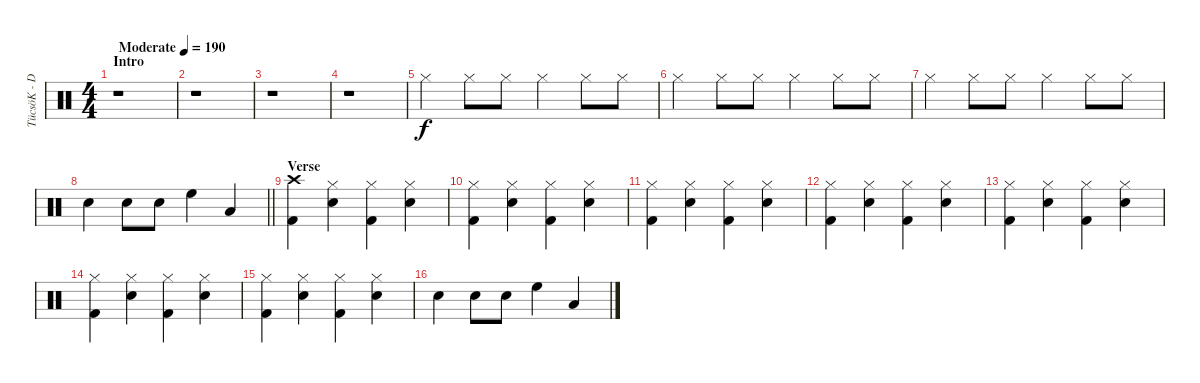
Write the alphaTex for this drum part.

\track ("TücsöK - Dob" "TücsöK - D") {instrument percussion}
\staff {score}
\articulation defaults
\ts (4 4)
\section ("" "Intro")
\tempo (190 "Moderate")
\clef neutral
\ks c
r.1{dy f} |
r.1 |
r.1 |
r.1 |
"Hi-Hat (closed)".4 "Hi-Hat (closed)".8 "Hi-Hat (closed)".8 "Hi-Hat (closed)".4 "Hi-Hat (closed)".8 "Hi-Hat (closed)".8 |
"Hi-Hat (closed)".4 "Hi-Hat (closed)".8 "Hi-Hat (closed)".8 "Hi-Hat (closed)".4 "Hi-Hat (closed)".8 "Hi-Hat (closed)".8 |
"Hi-Hat (closed)".4 "Hi-Hat (closed)".8 "Hi-Hat (closed)".8 "Hi-Hat (closed)".4 "Hi-Hat (closed)".8 "Hi-Hat (closed)".8 |
\barLineRight lightlight "Snare (hit) 2".4 "Snare (hit) 2".8 "Snare (hit) 2".8 "High Floor Tom (hit)".4 "Low Tom (hit)".4
|
\section ("" "Verse")
("Crash high (hit)" "Kick (hit) 2").4 ("Hi-Hat (closed)" "Snare (hit) 2").4 ("Hi-Hat (closed)" "Kick (hit) 2").4 ("Hi-Hat (closed)" "Snare (hit) 2").4 |
("Hi-Hat (closed)" "Kick (hit) 2").4 ("Hi-Hat (closed)" "Snare (hit) 2").4 ("Hi-Hat (closed)" "Kick (hit) 2").4 ("Hi-Hat (closed)" "Snare (hit) 2").4 |
("Hi-Hat (closed)" "Kick (hit) 2").4 ("Hi-Hat (closed)" "Snare (hit) 2").4 ("Hi-Hat (closed)" "Kick (hit) 2").4 ("Hi-Hat (closed)" "Snare (hit) 2").4 |
("Hi-Hat (closed)" "Kick (hit) 2").4 ("Hi-Hat (closed)" "Snare (hit) 2").4 ("Hi-Hat (closed)" "Kick (hit) 2").4 ("Hi-Hat (closed)" "Snare (hit) 2").4 |
("Hi-Hat (closed)" "Kick (hit) 2").4 ("Hi-Hat (closed)" "Snare (hit) 2").4 ("Hi-Hat (closed)" "Kick (hit) 2").4 ("Hi-Hat (closed)" "Snare (hit) 2").4 |
("Hi-Hat (closed)" "Kick (hit) 2").4 ("Hi-Hat (closed)" "Snare (hit) 2").4 ("Hi-Hat (closed)" "Kick (hit) 2").4 ("Hi-Hat (closed)" "Snare (hit) 2").4 |
("Hi-Hat (closed)" "Kick (hit) 2").4 ("Hi-Hat (closed)" "Snare (hit) 2").4 ("Hi-Hat (closed)" "Kick (hit) 2").4 ("Hi-Hat (closed)" "Snare (hit) 2").4 |
"Snare (hit) 2".4 "Snare (hit) 2".8 "Snare (hit) 2".8 "High Floor Tom (hit)".4 "Low Tom (hit)".4
